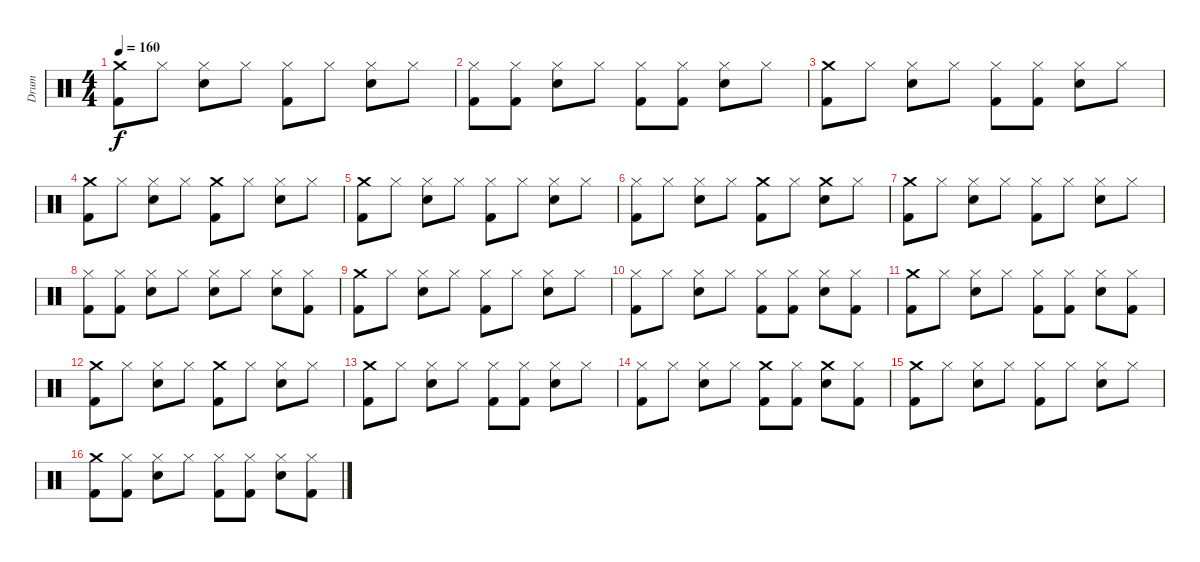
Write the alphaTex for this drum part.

\track ("Drum" "Drum") {instrument percussion}
\staff {score}
\articulation defaults
\ts (4 4)
\tempo 160
\clef neutral
\ks c
("Crash medium (hit)" "Kick (hit) 2").8{dy f} "Hi-Hat (closed)".8 ("Hi-Hat (closed)" "Snare (hit) 2").8 "Hi-Hat (closed)".8 ("Hi-Hat (closed)" "Kick (hit) 2").8 "Hi-Hat (closed)".8 ("Hi-Hat (closed)" "Snare (hit) 2").8 "Hi-Hat (closed)".8 |
("Hi-Hat (closed)" "Kick (hit) 2").8 ("Hi-Hat (closed)" "Kick (hit) 2").8 ("Hi-Hat (closed)" "Snare (hit) 2").8 "Hi-Hat (closed)".8 ("Hi-Hat (closed)" "Kick (hit) 2").8 ("Hi-Hat (closed)" "Kick (hit) 2").8 ("Hi-Hat (closed)" "Snare (hit) 2").8 "Hi-Hat (closed)".8 |
("Crash medium (hit)" "Kick (hit) 2").8 "Hi-Hat (closed)".8 ("Hi-Hat (closed)" "Snare (hit) 2").8 "Hi-Hat (closed)".8 ("Hi-Hat (closed)" "Kick (hit) 2").8 ("Hi-Hat (closed)" "Kick (hit) 2").8 ("Hi-Hat (closed)" "Snare (hit) 2").8 "Hi-Hat (closed)".8 |
("Crash medium (hit)" "Kick (hit) 2").8 "Hi-Hat (closed)".8 ("Hi-Hat (closed)" "Snare (hit) 2").8 "Hi-Hat (closed)".8 ("Crash medium (hit)" "Kick (hit) 2").8 "Hi-Hat (closed)".8 ("Hi-Hat (closed)" "Snare (hit) 2").8 "Hi-Hat (closed)".8 |
("Crash medium (hit)" "Kick (hit) 2").8 "Hi-Hat (closed)".8 ("Hi-Hat (closed)" "Snare (hit) 2").8 "Hi-Hat (closed)".8 ("Hi-Hat (closed)" "Kick (hit) 2").8 "Hi-Hat (closed)".8 ("Hi-Hat (closed)" "Snare (hit) 2").8 "Hi-Hat (closed)".8 |
("Hi-Hat (closed)" "Kick (hit) 2").8 "Hi-Hat (closed)".8 ("Hi-Hat (closed)" "Snare (hit) 2").8 "Hi-Hat (closed)".8 ("Crash medium (hit)" "Kick (hit) 2").8 "Hi-Hat (closed)".8 ("Crash medium (hit)" "Snare (hit) 2").8 "Hi-Hat (closed)".8 |
("Crash medium (hit)" "Kick (hit) 2").8 "Hi-Hat (closed)".8 ("Hi-Hat (closed)" "Snare (hit) 2").8 "Hi-Hat (closed)".8 ("Hi-Hat (closed)" "Kick (hit) 2").8 "Hi-Hat (closed)".8 ("Hi-Hat (closed)" "Snare (hit) 2").8 "Hi-Hat (closed)".8 |
("Hi-Hat (closed)" "Kick (hit) 2").8 ("Hi-Hat (closed)" "Kick (hit) 2").8 ("Hi-Hat (closed)" "Snare (hit) 2").8 "Hi-Hat (closed)".8 ("Hi-Hat (closed)" "Snare (hit) 2").8 "Hi-Hat (closed)".8 ("Hi-Hat (closed)" "Snare (hit) 2").8 ("Hi-Hat (closed)" "Kick (hit) 2").8 |
("Crash medium (hit)" "Kick (hit) 2").8 "Hi-Hat (closed)".8 ("Hi-Hat (closed)" "Snare (hit) 2").8 "Hi-Hat (closed)".8 ("Hi-Hat (closed)" "Kick (hit) 2").8 "Hi-Hat (closed)".8 ("Hi-Hat (closed)" "Snare (hit) 2").8 "Hi-Hat (closed)".8 |
("Hi-Hat (closed)" "Kick (hit) 2").8 "Hi-Hat (closed)".8 ("Hi-Hat (closed)" "Snare (hit) 2").8 "Hi-Hat (closed)".8 ("Hi-Hat (closed)" "Kick (hit) 2").8 ("Hi-Hat (closed)" "Kick (hit) 2").8 ("Hi-Hat (closed)" "Snare (hit) 2").8 ("Hi-Hat (closed)" "Kick (hit) 2").8 |
("Crash medium (hit)" "Kick (hit) 2").8 "Hi-Hat (closed)".8 ("Hi-Hat (closed)" "Snare (hit) 2").8 "Hi-Hat (closed)".8 ("Hi-Hat (closed)" "Kick (hit) 2").8 ("Hi-Hat (closed)" "Kick (hit) 2").8 ("Hi-Hat (closed)" "Snare (hit) 2").8 ("Hi-Hat (closed)" "Kick (hit) 2").8 |
("Crash medium (hit)" "Kick (hit) 2").8 "Hi-Hat (closed)".8 ("Hi-Hat (closed)" "Snare (hit) 2").8 "Hi-Hat (closed)".8 ("Crash medium (hit)" "Kick (hit) 2").8 "Hi-Hat (closed)".8 ("Hi-Hat (closed)" "Snare (hit) 2").8 "Hi-Hat (closed)".8 |
("Crash medium (hit)" "Kick (hit) 2").8 "Hi-Hat (closed)".8 ("Hi-Hat (closed)" "Snare (hit) 2").8 "Hi-Hat (closed)".8 ("Hi-Hat (closed)" "Kick (hit) 2").8 ("Hi-Hat (closed)" "Kick (hit) 2").8 ("Hi-Hat (closed)" "Snare (hit) 2").8 "Hi-Hat (closed)".8 |
("Hi-Hat (closed)" "Kick (hit) 2").8 "Hi-Hat (closed)".8 ("Hi-Hat (closed)" "Snare (hit) 2").8 "Hi-Hat (closed)".8 ("Crash medium (hit)" "Kick (hit) 2").8 ("Hi-Hat (closed)" "Kick (hit) 2").8 ("Crash medium (hit)" "Snare (hit) 2").8 ("Hi-Hat (closed)" "Kick (hit) 2").8 |
("Crash medium (hit)" "Kick (hit) 2").8 "Hi-Hat (closed)".8 ("Hi-Hat (closed)" "Snare (hit) 2").8 "Hi-Hat (closed)".8 ("Hi-Hat (closed)" "Kick (hit) 2").8 "Hi-Hat (closed)".8 ("Hi-Hat (closed)" "Snare (hit) 2").8 "Hi-Hat (closed)".8 |
("Crash medium (hit)" "Kick (hit) 2").8 ("Hi-Hat (closed)" "Kick (hit) 2").8 ("Hi-Hat (closed)" "Snare (hit) 2").8 "Hi-Hat (closed)".8 ("Hi-Hat (closed)" "Kick (hit) 2").8 ("Hi-Hat (closed)" "Kick (hit) 2").8 ("Hi-Hat (closed)" "Snare (hit) 2").8 ("Hi-Hat (closed)" "Kick (hit) 2").8
